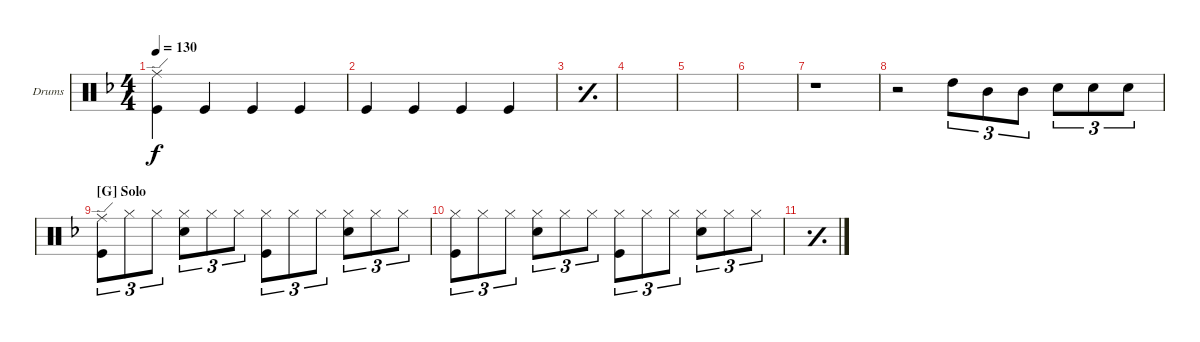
\defaultSystemsLayout 4
\bracketExtendMode groupsimilarinstruments
\firstSystemTrackNameOrientation horizontal
\otherSystemsTrackNameOrientation horizontal
\track ("Matt Helders" "Drums") {instrument percussion}
\staff {score}
\articulation defaults
\ts (4 4)
\tempo 130
\clef neutral
\ks f
("Kick (hit)" "Ride (edge)").4{dy f} "Kick (hit)".4 "Kick (hit)".4 "Kick (hit)".4 |
"Kick (hit)".4 "Kick (hit)".4 "Kick (hit)".4 "Kick (hit)".4 |
\simile simple
|
|
|
|
\simile none
r.1 |
r.2 "High Tom (hit)".8{tu (3 2)} "Mid Tom (hit)".8{tu (3 2)} "Mid Tom (hit)".8{tu (3 2)} "Snare (hit) 2".8{tu (3 2)} "Snare (hit) 2".8{tu (3 2)} "Snare (hit) 2".8{tu (3 2)} |
\section ("G" "Solo")
("Kick (hit)" "Ride (edge)").8{tu (3 2)} "Hi-Hat (closed)".8{tu (3 2)} "Hi-Hat (closed)".8{tu (3 2)} ("Snare (hit) 2" "Hi-Hat (closed)").8{tu (3 2)} "Hi-Hat (closed)".8{tu (3 2)} "Hi-Hat (closed)".8{tu (3 2)} ("Kick (hit)" "Hi-Hat (closed)").8{tu (3 2)} "Hi-Hat (closed)".8{tu (3 2)} "Hi-Hat (closed)".8{tu (3 2)} ("Snare (hit) 2" "Hi-Hat (closed)").8{tu (3 2)} "Hi-Hat (closed)".8{tu (3 2)} "Hi-Hat (closed)".8{tu (3 2)} |
("Kick (hit)" "Hi-Hat (closed)").8{tu (3 2)} "Hi-Hat (closed)".8{tu (3 2)} "Hi-Hat (closed)".8{tu (3 2)} ("Snare (hit) 2" "Hi-Hat (closed)").8{tu (3 2)} "Hi-Hat (closed)".8{tu (3 2)} "Hi-Hat (closed)".8{tu (3 2)} ("Kick (hit)" "Hi-Hat (closed)").8{tu (3 2)} "Hi-Hat (closed)".8{tu (3 2)} "Hi-Hat (closed)".8{tu (3 2)} ("Snare (hit) 2" "Hi-Hat (closed)").8{tu (3 2)} "Hi-Hat (closed)".8{tu (3 2)} "Hi-Hat (closed)".8{tu (3 2)} |
\simile simple
